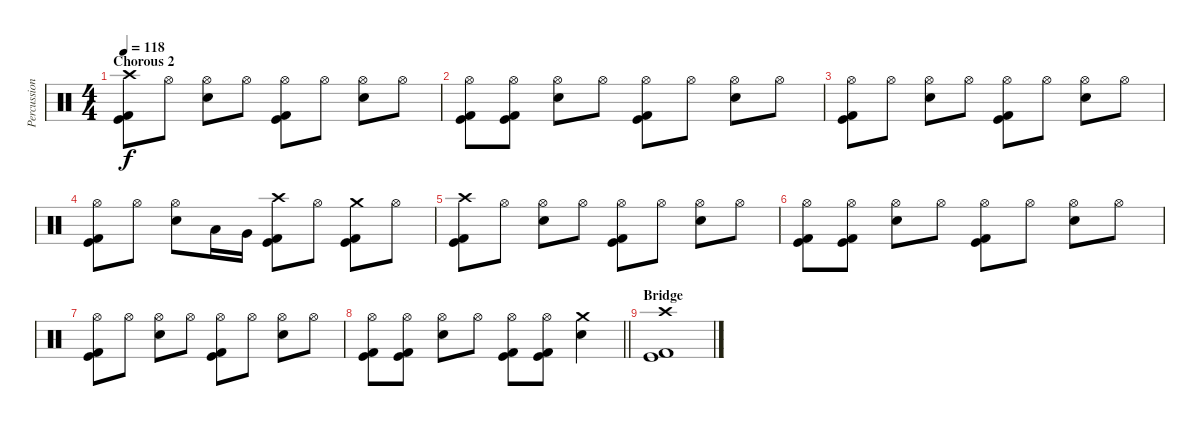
\track ("Percussion" "Percussion") {instrument percussion}
\staff {score}
\articulation defaults
\ts (4 4)
\section ("" "Chorous 2")
\tempo 118
\clef neutral
\ks c
("Crash high (hit)" "Kick (hit)" "Kick (hit) 2").8{dy f} "Hi-Hat (open)".8 ("Hi-Hat (open)" "Electric Snare (hit)").8 "Hi-Hat (open)".8 ("Hi-Hat (open)" "Kick (hit)" "Kick (hit) 2").8 "Hi-Hat (open)".8 ("Hi-Hat (open)" "Electric Snare (hit)").8 "Hi-Hat (open)".8 |
("Hi-Hat (open)" "Kick (hit)" "Kick (hit) 2").8 ("Hi-Hat (open)" "Kick (hit)" "Kick (hit) 2").8 ("Hi-Hat (open)" "Electric Snare (hit)").8 "Hi-Hat (open)".8 ("Hi-Hat (open)" "Kick (hit)" "Kick (hit) 2").8 "Hi-Hat (open)".8 ("Hi-Hat (open)" "Electric Snare (hit)").8 "Hi-Hat (open)".8 |
("Hi-Hat (open)" "Kick (hit)" "Kick (hit) 2").8 "Hi-Hat (open)".8 ("Hi-Hat (open)" "Electric Snare (hit)").8 "Hi-Hat (open)".8 ("Hi-Hat (open)" "Kick (hit)" "Kick (hit) 2").8 "Hi-Hat (open)".8 ("Hi-Hat (open)" "Electric Snare (hit)").8 "Hi-Hat (open)".8 |
("Hi-Hat (open)" "Kick (hit)" "Kick (hit) 2").8 "Hi-Hat (open)".8 ("Hi-Hat (open)" "Electric Snare (hit)").8 "Low Tom (hit)".16 "Very Low Tom (hit)".16 ("Crash high (hit)" "Kick (hit)" "Kick (hit) 2").8 "Hi-Hat (open)".8 ("Crash medium (hit)" "Kick (hit)" "Kick (hit) 2").8 "Hi-Hat (open)".8 |
("Crash high (hit)" "Kick (hit)" "Kick (hit) 2").8 "Hi-Hat (open)".8 ("Hi-Hat (open)" "Electric Snare (hit)").8 "Hi-Hat (open)".8 ("Hi-Hat (open)" "Kick (hit)" "Kick (hit) 2").8 "Hi-Hat (open)".8 ("Hi-Hat (open)" "Electric Snare (hit)").8 "Hi-Hat (open)".8 |
("Hi-Hat (open)" "Kick (hit)" "Kick (hit) 2").8 ("Hi-Hat (open)" "Kick (hit)" "Kick (hit) 2").8 ("Hi-Hat (open)" "Electric Snare (hit)").8 "Hi-Hat (open)".8 ("Hi-Hat (open)" "Kick (hit)" "Kick (hit) 2").8 "Hi-Hat (open)".8 ("Hi-Hat (open)" "Electric Snare (hit)").8 "Hi-Hat (open)".8 |
("Hi-Hat (open)" "Kick (hit)" "Kick (hit) 2").8 "Hi-Hat (open)".8 ("Hi-Hat (open)" "Electric Snare (hit)").8 "Hi-Hat (open)".8 ("Hi-Hat (open)" "Kick (hit)" "Kick (hit) 2").8 "Hi-Hat (open)".8 ("Hi-Hat (open)" "Electric Snare (hit)").8 "Hi-Hat (open)".8 |
\barLineRight lightlight
("Hi-Hat (open)" "Kick (hit)" "Kick (hit) 2").8 ("Hi-Hat (open)" "Kick (hit)" "Kick (hit) 2").8 ("Hi-Hat (open)" "Electric Snare (hit)").8 "Hi-Hat (open)".8 ("Hi-Hat (open)" "Kick (hit)" "Kick (hit) 2").8 ("Hi-Hat (open)" "Kick (hit)" "Kick (hit) 2").8 ("Crash medium (hit)" "Electric Snare (hit)").4 |
\section ("" "Bridge")
("Crash high (hit)" "Kick (hit)" "Kick (hit) 2").1
